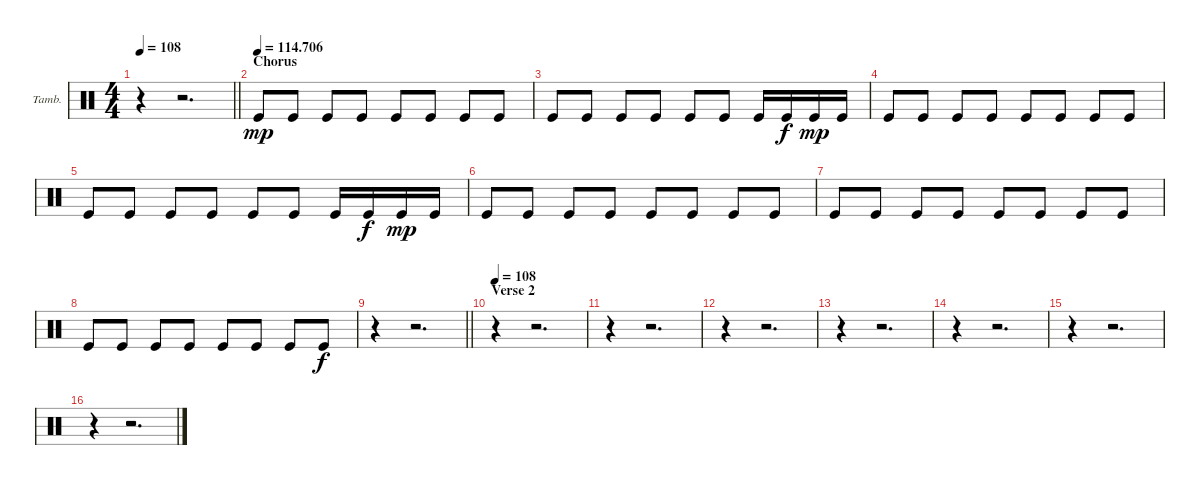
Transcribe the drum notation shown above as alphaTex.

\bracketExtendMode groupsimilarinstruments
\firstSystemTrackNameOrientation horizontal
\otherSystemsTrackNameOrientation horizontal
\track ("Tambourine" "Tamb.") {instrument percussion}
\staff {score}
\articulation defaults
\ts (4 4)
\tempo 108
\clef neutral
\barLineRight lightlight
\ks c
r.4{dy mp} r.2{d} |
\section ("" "Chorus")
\tempo (114.706)
"Kick (hit)".8 "Kick (hit)".8 "Kick (hit)".8 "Kick (hit)".8 "Kick (hit)".8 "Kick (hit)".8 "Kick (hit)".8 "Kick (hit)".8 |
"Kick (hit)".8 "Kick (hit)".8 "Kick (hit)".8 "Kick (hit)".8 "Kick (hit)".8 "Kick (hit)".8 "Kick (hit)".16 "Kick (hit)".16{dy f} "Kick (hit)".16{dy mp} "Kick (hit)".16 |
"Kick (hit)".8 "Kick (hit)".8 "Kick (hit)".8 "Kick (hit)".8 "Kick (hit)".8 "Kick (hit)".8 "Kick (hit)".8 "Kick (hit)".8 |
"Kick (hit)".8 "Kick (hit)".8 "Kick (hit)".8 "Kick (hit)".8 "Kick (hit)".8 "Kick (hit)".8 "Kick (hit)".16 "Kick (hit)".16{dy f} "Kick (hit)".16{dy mp} "Kick (hit)".16 |
"Kick (hit)".8 "Kick (hit)".8 "Kick (hit)".8 "Kick (hit)".8 "Kick (hit)".8 "Kick (hit)".8 "Kick (hit)".8 "Kick (hit)".8 |
"Kick (hit)".8 "Kick (hit)".8 "Kick (hit)".8 "Kick (hit)".8 "Kick (hit)".8 "Kick (hit)".8 "Kick (hit)".8 "Kick (hit)".8 |
"Kick (hit)".8 "Kick (hit)".8 "Kick (hit)".8 "Kick (hit)".8 "Kick (hit)".8 "Kick (hit)".8 "Kick (hit)".8 "Kick (hit)".8{dy f} |
\barLineRight lightlight
r.4 r.2{d} |
\section ("" "Verse 2")
\tempo 108
r.4 r.2{d} |
r.4 r.2{d} |
r.4 r.2{d} |
r.4 r.2{d} |
r.4 r.2{d} |
r.4 r.2{d} |
r.4 r.2{d}
